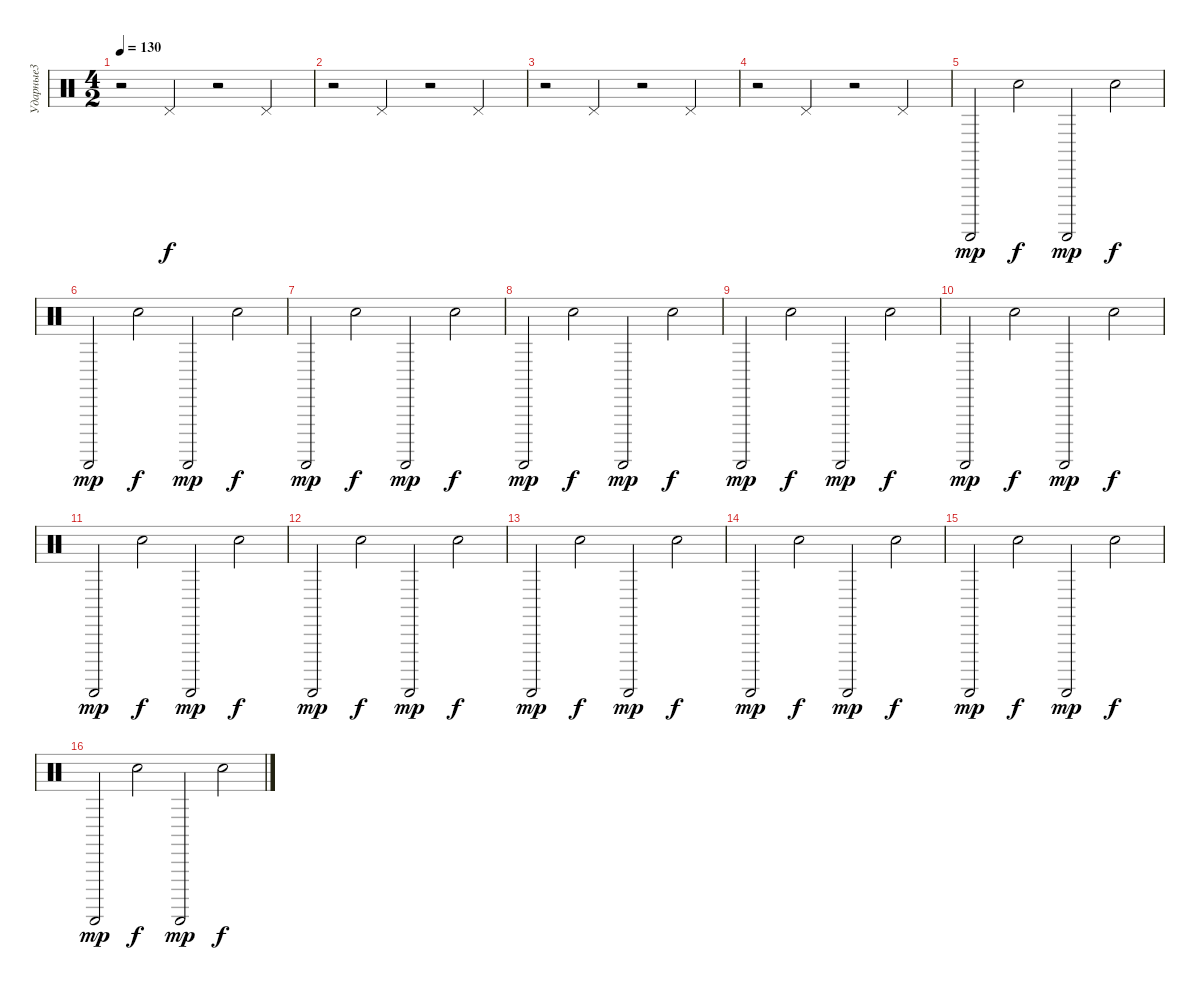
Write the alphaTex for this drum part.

\track ("Ударные3" "Ударные3") {instrument percussion}
\staff {score}
\articulation defaults
\ts (4 2)
\tempo 130
\clef neutral
\ks c
r.2{dy f} "Pedal Hi-Hat (hit)".2 r.2 "Pedal Hi-Hat (hit)".2 |
r.2 "Pedal Hi-Hat (hit)".2 r.2 "Pedal Hi-Hat (hit)".2 |
r.2 "Pedal Hi-Hat (hit)".2 r.2 "Pedal Hi-Hat (hit)".2 |
r.2 "Pedal Hi-Hat (hit)".2 r.2 "Pedal Hi-Hat (hit)".2 |
"Guiro (scrap-return)".2{dy mp} "Hand Clap (hit)".2{dy f} "Guiro (scrap-return)".2{dy mp} "Hand Clap (hit)".2{dy f} |
"Guiro (scrap-return)".2{dy mp} "Hand Clap (hit)".2{dy f} "Guiro (scrap-return)".2{dy mp} "Hand Clap (hit)".2{dy f} |
"Guiro (scrap-return)".2{dy mp} "Hand Clap (hit)".2{dy f} "Guiro (scrap-return)".2{dy mp} "Hand Clap (hit)".2{dy f} |
"Guiro (scrap-return)".2{dy mp} "Hand Clap (hit)".2{dy f} "Guiro (scrap-return)".2{dy mp} "Hand Clap (hit)".2{dy f} |
"Guiro (scrap-return)".2{dy mp} "Hand Clap (hit)".2{dy f} "Guiro (scrap-return)".2{dy mp} "Hand Clap (hit)".2{dy f} |
"Guiro (scrap-return)".2{dy mp} "Hand Clap (hit)".2{dy f} "Guiro (scrap-return)".2{dy mp} "Hand Clap (hit)".2{dy f} |
"Guiro (scrap-return)".2{dy mp} "Hand Clap (hit)".2{dy f} "Guiro (scrap-return)".2{dy mp} "Hand Clap (hit)".2{dy f} |
"Guiro (scrap-return)".2{dy mp} "Hand Clap (hit)".2{dy f} "Guiro (scrap-return)".2{dy mp} "Hand Clap (hit)".2{dy f} |
"Guiro (scrap-return)".2{dy mp} "Hand Clap (hit)".2{dy f} "Guiro (scrap-return)".2{dy mp} "Hand Clap (hit)".2{dy f} |
"Guiro (scrap-return)".2{dy mp} "Hand Clap (hit)".2{dy f} "Guiro (scrap-return)".2{dy mp} "Hand Clap (hit)".2{dy f} |
"Guiro (scrap-return)".2{dy mp} "Hand Clap (hit)".2{dy f} "Guiro (scrap-return)".2{dy mp} "Hand Clap (hit)".2{dy f} |
"Guiro (scrap-return)".2{dy mp} "Hand Clap (hit)".2{dy f} "Guiro (scrap-return)".2{dy mp} "Hand Clap (hit)".2{dy f}
